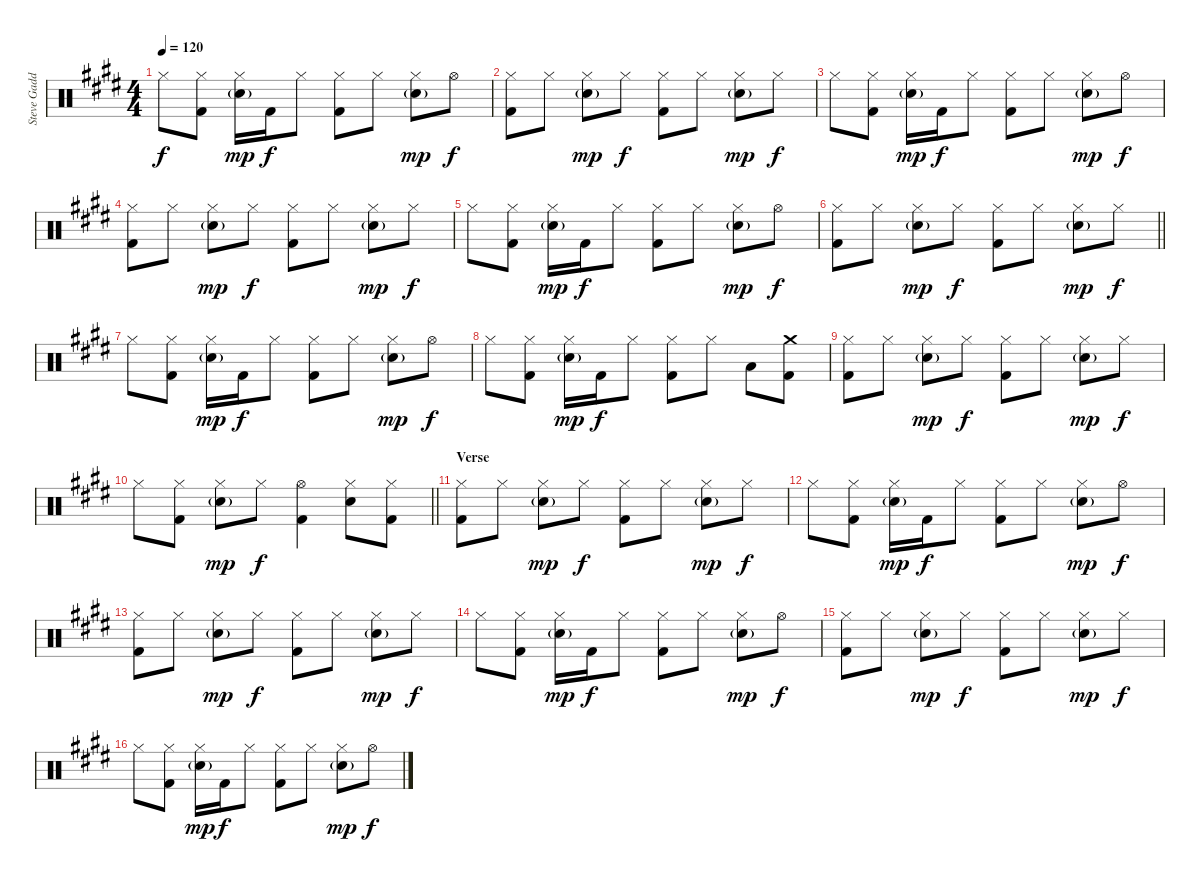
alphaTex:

\track ("Steve Gadd Drums" "Steve Gadd") {instrument percussion}
\staff {score}
\articulation defaults
\ts (4 4)
\tempo 120
\clef neutral
\ks e "Hi-Hat (closed)".8{dy f}
("Hi-Hat (closed)" "Kick (hit) 2").8 ("Hi-Hat (closed)" "Snare (hit) 2"{g}).16{dy mp} "Kick (hit) 2".16{dy f} "Hi-Hat (closed)".8 ("Hi-Hat (closed)" "Kick (hit) 2").8 "Hi-Hat (closed)".8 ("Hi-Hat (closed)" "Snare (hit) 2"{g}).8{dy mp} "Hi-Hat (open)".8{dy f} |
("Hi-Hat (closed)" "Kick (hit) 2").8 "Hi-Hat (closed)".8 ("Hi-Hat (closed)" "Snare (hit) 2"{g}).8{dy mp} "Hi-Hat (closed)".8{dy f} ("Hi-Hat (closed)" "Kick (hit) 2").8 "Hi-Hat (closed)".8 ("Hi-Hat (closed)" "Snare (hit) 2"{g}).8{dy mp} "Hi-Hat (closed)".8{dy f} |
"Hi-Hat (closed)".8 ("Hi-Hat (closed)" "Kick (hit) 2").8 ("Hi-Hat (closed)" "Snare (hit) 2"{g}).16{dy mp} "Kick (hit) 2".16{dy f} "Hi-Hat (closed)".8 ("Hi-Hat (closed)" "Kick (hit) 2").8 "Hi-Hat (closed)".8 ("Hi-Hat (closed)" "Snare (hit) 2"{g}).8{dy mp} "Hi-Hat (open)".8{dy f} |
("Hi-Hat (closed)" "Kick (hit) 2").8 "Hi-Hat (closed)".8 ("Hi-Hat (closed)" "Snare (hit) 2"{g}).8{dy mp} "Hi-Hat (closed)".8{dy f} ("Hi-Hat (closed)" "Kick (hit) 2").8 "Hi-Hat (closed)".8 ("Hi-Hat (closed)" "Snare (hit) 2"{g}).8{dy mp} "Hi-Hat (closed)".8{dy f} |
"Hi-Hat (closed)".8 ("Hi-Hat (closed)" "Kick (hit) 2").8 ("Hi-Hat (closed)" "Snare (hit) 2"{g}).16{dy mp} "Kick (hit) 2".16{dy f} "Hi-Hat (closed)".8 ("Hi-Hat (closed)" "Kick (hit) 2").8 "Hi-Hat (closed)".8 ("Hi-Hat (closed)" "Snare (hit) 2"{g}).8{dy mp} "Hi-Hat (open)".8{dy f} |
\barLineRight lightlight
("Hi-Hat (closed)" "Kick (hit) 2").8 "Hi-Hat (closed)".8 ("Hi-Hat (closed)" "Snare (hit) 2"{g}).8{dy mp} "Hi-Hat (closed)".8{dy f} ("Hi-Hat (closed)" "Kick (hit) 2").8 "Hi-Hat (closed)".8 ("Hi-Hat (closed)" "Snare (hit) 2"{g}).8{dy mp} "Hi-Hat (closed)".8{dy f} |
"Hi-Hat (closed)".8 ("Hi-Hat (closed)" "Kick (hit) 2").8 ("Hi-Hat (closed)" "Snare (hit) 2"{g}).16{dy mp} "Kick (hit) 2".16{dy f} "Hi-Hat (closed)".8 ("Hi-Hat (closed)" "Kick (hit) 2").8 "Hi-Hat (closed)".8 ("Hi-Hat (closed)" "Snare (hit) 2"{g}).8{dy mp} "Hi-Hat (open)".8{dy f} |
"Hi-Hat (closed)".8 ("Hi-Hat (closed)" "Kick (hit) 2").8 ("Hi-Hat (closed)" "Snare (hit) 2"{g}).16{dy mp} "Kick (hit) 2".16{dy f} "Hi-Hat (closed)".8 ("Hi-Hat (closed)" "Kick (hit) 2").8 "Hi-Hat (closed)".8 "Low Tom (hit)".8 ("Crash medium (hit)" "Kick (hit) 2").8 |
("Hi-Hat (closed)" "Kick (hit) 2").8 "Hi-Hat (closed)".8 ("Hi-Hat (closed)" "Snare (hit) 2"{g}).8{dy mp} "Hi-Hat (closed)".8{dy f} ("Hi-Hat (closed)" "Kick (hit) 2").8 "Hi-Hat (closed)".8 ("Hi-Hat (closed)" "Snare (hit) 2"{g}).8{dy mp} "Hi-Hat (closed)".8{dy f} |
\barLineRight lightlight "Hi-Hat (closed)".8
("Hi-Hat (closed)" "Kick (hit) 2").8 ("Hi-Hat (closed)" "Snare (hit) 2"{g}).8{dy mp} "Hi-Hat (closed)".8{dy f} ("Hi-Hat (open)" "Kick (hit) 2").4 ("Hi-Hat (closed)" "Snare (hit) 2").8 ("Hi-Hat (closed)" "Kick (hit) 2").8 |
\section ("" "Verse")
("Hi-Hat (closed)" "Kick (hit) 2").8 "Hi-Hat (closed)".8 ("Hi-Hat (closed)" "Snare (hit) 2"{g}).8{dy mp} "Hi-Hat (closed)".8{dy f} ("Hi-Hat (closed)" "Kick (hit) 2").8 "Hi-Hat (closed)".8 ("Hi-Hat (closed)" "Snare (hit) 2"{g}).8{dy mp} "Hi-Hat (closed)".8{dy f} |
"Hi-Hat (closed)".8 ("Hi-Hat (closed)" "Kick (hit) 2").8 ("Hi-Hat (closed)" "Snare (hit) 2"{g}).16{dy mp} "Kick (hit) 2".16{dy f} "Hi-Hat (closed)".8 ("Hi-Hat (closed)" "Kick (hit) 2").8 "Hi-Hat (closed)".8 ("Hi-Hat (closed)" "Snare (hit) 2"{g}).8{dy mp} "Hi-Hat (open)".8{dy f} |
("Hi-Hat (closed)" "Kick (hit) 2").8 "Hi-Hat (closed)".8 ("Hi-Hat (closed)" "Snare (hit) 2"{g}).8{dy mp} "Hi-Hat (closed)".8{dy f} ("Hi-Hat (closed)" "Kick (hit) 2").8 "Hi-Hat (closed)".8 ("Hi-Hat (closed)" "Snare (hit) 2"{g}).8{dy mp} "Hi-Hat (closed)".8{dy f} |
"Hi-Hat (closed)".8 ("Hi-Hat (closed)" "Kick (hit) 2").8 ("Hi-Hat (closed)" "Snare (hit) 2"{g}).16{dy mp} "Kick (hit) 2".16{dy f} "Hi-Hat (closed)".8 ("Hi-Hat (closed)" "Kick (hit) 2").8 "Hi-Hat (closed)".8 ("Hi-Hat (closed)" "Snare (hit) 2"{g}).8{dy mp} "Hi-Hat (open)".8{dy f} |
("Hi-Hat (closed)" "Kick (hit) 2").8 "Hi-Hat (closed)".8 ("Hi-Hat (closed)" "Snare (hit) 2"{g}).8{dy mp} "Hi-Hat (closed)".8{dy f} ("Hi-Hat (closed)" "Kick (hit) 2").8 "Hi-Hat (closed)".8 ("Hi-Hat (closed)" "Snare (hit) 2"{g}).8{dy mp} "Hi-Hat (closed)".8{dy f} |
"Hi-Hat (closed)".8 ("Hi-Hat (closed)" "Kick (hit) 2").8 ("Hi-Hat (closed)" "Snare (hit) 2"{g}).16{dy mp} "Kick (hit) 2".16{dy f} "Hi-Hat (closed)".8 ("Hi-Hat (closed)" "Kick (hit) 2").8 "Hi-Hat (closed)".8 ("Hi-Hat (closed)" "Snare (hit) 2"{g}).8{dy mp} "Hi-Hat (open)".8{dy f}
